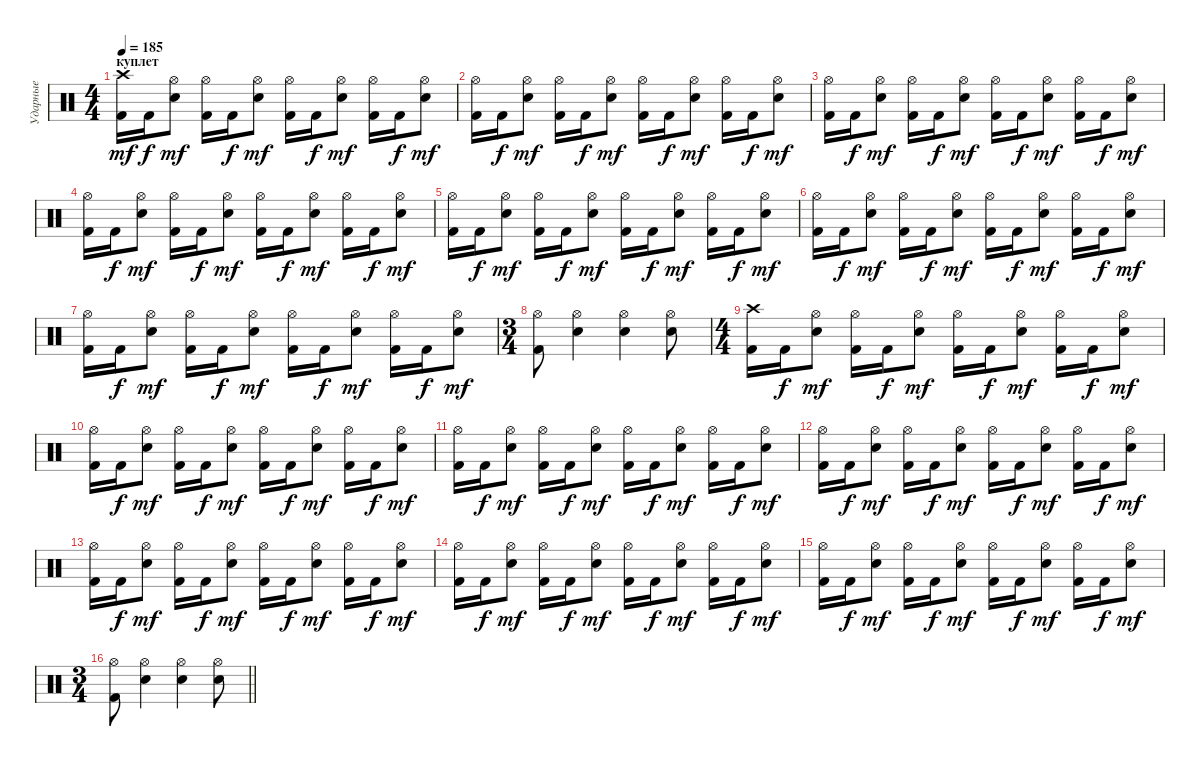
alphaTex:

\track ("Ударные" "Ударные") {instrument percussion}
\staff {score}
\articulation defaults
\ts (4 4)
\section ("" "куплет")
\tempo 185
\clef neutral
\ks c
("Kick (hit) 2" "Crash high (hit)").16{dy mf} "Kick (hit) 2".16{dy f} ("Electric Snare (hit)" "Hi-Hat (open)").8{dy mf} ("Kick (hit) 2" "Hi-Hat (open)").16 "Kick (hit) 2".16{dy f} ("Electric Snare (hit)" "Hi-Hat (open)").8{dy mf} ("Kick (hit) 2" "Hi-Hat (open)").16 "Kick (hit) 2".16{dy f} ("Electric Snare (hit)" "Hi-Hat (open)").8{dy mf} ("Kick (hit) 2" "Hi-Hat (open)").16 "Kick (hit) 2".16{dy f} ("Electric Snare (hit)" "Hi-Hat (open)").8{dy mf} |
("Kick (hit) 2" "Hi-Hat (open)").16 "Kick (hit) 2".16{dy f} ("Electric Snare (hit)" "Hi-Hat (open)").8{dy mf} ("Kick (hit) 2" "Hi-Hat (open)").16 "Kick (hit) 2".16{dy f} ("Electric Snare (hit)" "Hi-Hat (open)").8{dy mf} ("Kick (hit) 2" "Hi-Hat (open)").16 "Kick (hit) 2".16{dy f} ("Electric Snare (hit)" "Hi-Hat (open)").8{dy mf} ("Kick (hit) 2" "Hi-Hat (open)").16 "Kick (hit) 2".16{dy f} ("Electric Snare (hit)" "Hi-Hat (open)").8{dy mf} |
("Kick (hit) 2" "Hi-Hat (open)").16 "Kick (hit) 2".16{dy f} ("Electric Snare (hit)" "Hi-Hat (open)").8{dy mf} ("Kick (hit) 2" "Hi-Hat (open)").16 "Kick (hit) 2".16{dy f} ("Electric Snare (hit)" "Hi-Hat (open)").8{dy mf} ("Kick (hit) 2" "Hi-Hat (open)").16 "Kick (hit) 2".16{dy f} ("Electric Snare (hit)" "Hi-Hat (open)").8{dy mf} ("Kick (hit) 2" "Hi-Hat (open)").16 "Kick (hit) 2".16{dy f} ("Electric Snare (hit)" "Hi-Hat (open)").8{dy mf} |
("Kick (hit) 2" "Hi-Hat (open)").16 "Kick (hit) 2".16{dy f} ("Electric Snare (hit)" "Hi-Hat (open)").8{dy mf} ("Kick (hit) 2" "Hi-Hat (open)").16 "Kick (hit) 2".16{dy f} ("Electric Snare (hit)" "Hi-Hat (open)").8{dy mf} ("Kick (hit) 2" "Hi-Hat (open)").16 "Kick (hit) 2".16{dy f} ("Electric Snare (hit)" "Hi-Hat (open)").8{dy mf} ("Kick (hit) 2" "Hi-Hat (open)").16 "Kick (hit) 2".16{dy f} ("Electric Snare (hit)" "Hi-Hat (open)").8{dy mf} |
("Kick (hit) 2" "Hi-Hat (open)").16 "Kick (hit) 2".16{dy f} ("Electric Snare (hit)" "Hi-Hat (open)").8{dy mf} ("Kick (hit) 2" "Hi-Hat (open)").16 "Kick (hit) 2".16{dy f} ("Electric Snare (hit)" "Hi-Hat (open)").8{dy mf} ("Kick (hit) 2" "Hi-Hat (open)").16 "Kick (hit) 2".16{dy f} ("Electric Snare (hit)" "Hi-Hat (open)").8{dy mf} ("Kick (hit) 2" "Hi-Hat (open)").16 "Kick (hit) 2".16{dy f} ("Electric Snare (hit)" "Hi-Hat (open)").8{dy mf} |
("Kick (hit) 2" "Hi-Hat (open)").16 "Kick (hit) 2".16{dy f} ("Electric Snare (hit)" "Hi-Hat (open)").8{dy mf} ("Kick (hit) 2" "Hi-Hat (open)").16 "Kick (hit) 2".16{dy f} ("Electric Snare (hit)" "Hi-Hat (open)").8{dy mf} ("Kick (hit) 2" "Hi-Hat (open)").16 "Kick (hit) 2".16{dy f} ("Electric Snare (hit)" "Hi-Hat (open)").8{dy mf} ("Kick (hit) 2" "Hi-Hat (open)").16 "Kick (hit) 2".16{dy f} ("Electric Snare (hit)" "Hi-Hat (open)").8{dy mf} |
("Kick (hit) 2" "Hi-Hat (open)").16 "Kick (hit) 2".16{dy f} ("Electric Snare (hit)" "Hi-Hat (open)").8{dy mf} ("Kick (hit) 2" "Hi-Hat (open)").16 "Kick (hit) 2".16{dy f} ("Electric Snare (hit)" "Hi-Hat (open)").8{dy mf} ("Kick (hit) 2" "Hi-Hat (open)").16 "Kick (hit) 2".16{dy f} ("Electric Snare (hit)" "Hi-Hat (open)").8{dy mf} ("Kick (hit) 2" "Hi-Hat (open)").16 "Kick (hit) 2".16{dy f} ("Electric Snare (hit)" "Hi-Hat (open)").8{dy mf} |
\ts (3 4)
("Kick (hit) 2" "Hi-Hat (open)").8 ("Electric Snare (hit)" "Hi-Hat (open)").4 ("Electric Snare (hit)" "Hi-Hat (open)").4 ("Electric Snare (hit)" "Hi-Hat (open)").8 |
\ts (4 4)
("Kick (hit) 2" "Crash high (hit)").16 "Kick (hit) 2".16{dy f} ("Electric Snare (hit)" "Hi-Hat (open)").8{dy mf} ("Kick (hit) 2" "Hi-Hat (open)").16 "Kick (hit) 2".16{dy f} ("Electric Snare (hit)" "Hi-Hat (open)").8{dy mf} ("Kick (hit) 2" "Hi-Hat (open)").16 "Kick (hit) 2".16{dy f} ("Electric Snare (hit)" "Hi-Hat (open)").8{dy mf} ("Kick (hit) 2" "Hi-Hat (open)").16 "Kick (hit) 2".16{dy f} ("Electric Snare (hit)" "Hi-Hat (open)").8{dy mf} |
("Kick (hit) 2" "Hi-Hat (open)").16 "Kick (hit) 2".16{dy f} ("Electric Snare (hit)" "Hi-Hat (open)").8{dy mf} ("Kick (hit) 2" "Hi-Hat (open)").16 "Kick (hit) 2".16{dy f} ("Electric Snare (hit)" "Hi-Hat (open)").8{dy mf} ("Kick (hit) 2" "Hi-Hat (open)").16 "Kick (hit) 2".16{dy f} ("Electric Snare (hit)" "Hi-Hat (open)").8{dy mf} ("Kick (hit) 2" "Hi-Hat (open)").16 "Kick (hit) 2".16{dy f} ("Electric Snare (hit)" "Hi-Hat (open)").8{dy mf} |
("Kick (hit) 2" "Hi-Hat (open)").16 "Kick (hit) 2".16{dy f} ("Electric Snare (hit)" "Hi-Hat (open)").8{dy mf} ("Kick (hit) 2" "Hi-Hat (open)").16 "Kick (hit) 2".16{dy f} ("Electric Snare (hit)" "Hi-Hat (open)").8{dy mf} ("Kick (hit) 2" "Hi-Hat (open)").16 "Kick (hit) 2".16{dy f} ("Electric Snare (hit)" "Hi-Hat (open)").8{dy mf} ("Kick (hit) 2" "Hi-Hat (open)").16 "Kick (hit) 2".16{dy f} ("Electric Snare (hit)" "Hi-Hat (open)").8{dy mf} |
("Kick (hit) 2" "Hi-Hat (open)").16 "Kick (hit) 2".16{dy f} ("Electric Snare (hit)" "Hi-Hat (open)").8{dy mf} ("Kick (hit) 2" "Hi-Hat (open)").16 "Kick (hit) 2".16{dy f} ("Electric Snare (hit)" "Hi-Hat (open)").8{dy mf} ("Kick (hit) 2" "Hi-Hat (open)").16 "Kick (hit) 2".16{dy f} ("Electric Snare (hit)" "Hi-Hat (open)").8{dy mf} ("Kick (hit) 2" "Hi-Hat (open)").16 "Kick (hit) 2".16{dy f} ("Electric Snare (hit)" "Hi-Hat (open)").8{dy mf} |
("Kick (hit) 2" "Hi-Hat (open)").16 "Kick (hit) 2".16{dy f} ("Electric Snare (hit)" "Hi-Hat (open)").8{dy mf} ("Kick (hit) 2" "Hi-Hat (open)").16 "Kick (hit) 2".16{dy f} ("Electric Snare (hit)" "Hi-Hat (open)").8{dy mf} ("Kick (hit) 2" "Hi-Hat (open)").16 "Kick (hit) 2".16{dy f} ("Electric Snare (hit)" "Hi-Hat (open)").8{dy mf} ("Kick (hit) 2" "Hi-Hat (open)").16 "Kick (hit) 2".16{dy f} ("Electric Snare (hit)" "Hi-Hat (open)").8{dy mf} |
("Kick (hit) 2" "Hi-Hat (open)").16 "Kick (hit) 2".16{dy f} ("Electric Snare (hit)" "Hi-Hat (open)").8{dy mf} ("Kick (hit) 2" "Hi-Hat (open)").16 "Kick (hit) 2".16{dy f} ("Electric Snare (hit)" "Hi-Hat (open)").8{dy mf} ("Kick (hit) 2" "Hi-Hat (open)").16 "Kick (hit) 2".16{dy f} ("Electric Snare (hit)" "Hi-Hat (open)").8{dy mf} ("Kick (hit) 2" "Hi-Hat (open)").16 "Kick (hit) 2".16{dy f} ("Electric Snare (hit)" "Hi-Hat (open)").8{dy mf} |
("Kick (hit) 2" "Hi-Hat (open)").16 "Kick (hit) 2".16{dy f} ("Electric Snare (hit)" "Hi-Hat (open)").8{dy mf} ("Kick (hit) 2" "Hi-Hat (open)").16 "Kick (hit) 2".16{dy f} ("Electric Snare (hit)" "Hi-Hat (open)").8{dy mf} ("Kick (hit) 2" "Hi-Hat (open)").16 "Kick (hit) 2".16{dy f} ("Electric Snare (hit)" "Hi-Hat (open)").8{dy mf} ("Kick (hit) 2" "Hi-Hat (open)").16 "Kick (hit) 2".16{dy f} ("Electric Snare (hit)" "Hi-Hat (open)").8{dy mf} |
\ts (3 4)
\barLineRight lightlight
("Kick (hit) 2" "Hi-Hat (open)").8 ("Electric Snare (hit)" "Hi-Hat (open)").4 ("Electric Snare (hit)" "Hi-Hat (open)").4 ("Electric Snare (hit)" "Hi-Hat (open)").8
